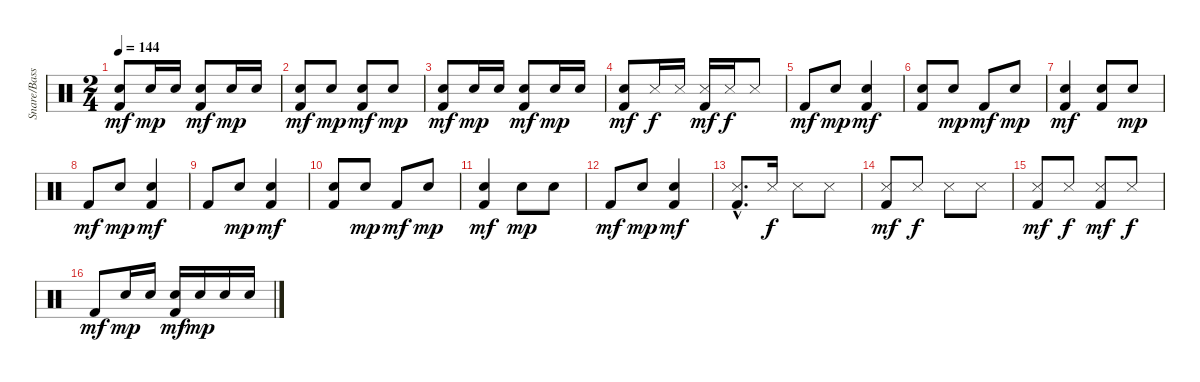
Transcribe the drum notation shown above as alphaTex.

\track ("Snare/Bass Dr       " "Snare/Bass") {instrument percussion}
\staff {score}
\articulation defaults
\ts (2 4)
\tempo 144
\clef neutral
\ks c
("Snare (hit) 2" "Kick (hit) 2").8{dy mf} "Snare (hit) 2".16{dy mp} "Snare (hit) 2".16 ("Snare (hit) 2" "Kick (hit) 2").8{dy mf} "Snare (hit) 2".16{dy mp} "Snare (hit) 2".16 |
("Snare (hit) 2" "Kick (hit) 2").8{dy mf} "Snare (hit) 2".8{dy mp} ("Snare (hit) 2" "Kick (hit) 2").8{dy mf} "Snare (hit) 2".8{dy mp} |
("Snare (hit) 2" "Kick (hit) 2").8{dy mf} "Snare (hit) 2".16{dy mp} "Snare (hit) 2".16 ("Snare (hit) 2" "Kick (hit) 2").8{dy mf} "Snare (hit) 2".16{dy mp} "Snare (hit) 2".16 |
("Snare (hit) 2" "Kick (hit) 2").8{dy mf} "Snare (side stick) 3".16{dy f} "Snare (side stick) 3".16 ("Snare (side stick) 3" "Kick (hit) 2").16{dy mf} "Snare (side stick) 3".16{dy f} "Snare (side stick) 3".8 |
"Kick (hit) 2".8{dy mf} "Snare (hit) 2".8{dy mp} ("Snare (hit) 2" "Kick (hit) 2").4{dy mf} |
("Snare (hit) 2" "Kick (hit) 2").8 "Snare (hit) 2".8{dy mp} "Kick (hit) 2".8{dy mf} "Snare (hit) 2".8{dy mp} |
("Snare (hit) 2" "Kick (hit) 2").4{dy mf} ("Snare (hit) 2" "Kick (hit) 2").8 "Snare (hit) 2".8{dy mp} |
"Kick (hit) 2".8{dy mf} "Snare (hit) 2".8{dy mp} ("Snare (hit) 2" "Kick (hit) 2").4{dy mf} |
"Kick (hit) 2".8 "Snare (hit) 2".8{dy mp} ("Snare (hit) 2" "Kick (hit) 2").4{dy mf} |
("Snare (hit) 2" "Kick (hit) 2").8 "Snare (hit) 2".8{dy mp} "Kick (hit) 2".8{dy mf} "Snare (hit) 2".8{dy mp} |
("Snare (hit) 2" "Kick (hit) 2").4{dy mf} "Snare (hit) 2".8{dy mp} "Snare (hit) 2".8 |
"Kick (hit) 2".8{dy mf} "Snare (hit) 2".8{dy mp} ("Snare (hit) 2" "Kick (hit) 2").4{dy mf} |
("Snare (side stick) 3"{hac} "Kick (hit) 2").8{d} "Snare (side stick) 3".16{dy f} "Snare (side stick) 3".8 "Snare (side stick) 3".8 |
("Snare (side stick) 3" "Kick (hit) 2").8{dy mf} "Snare (side stick) 3".8{dy f} "Snare (side stick) 3".8 "Snare (side stick) 3".8 |
("Snare (side stick) 3" "Kick (hit) 2").8{dy mf} "Snare (side stick) 3".8{dy f} ("Snare (side stick) 3" "Kick (hit) 2").8{dy mf} "Snare (side stick) 3".8{dy f} |
"Kick (hit) 2".8{dy mf} "Snare (hit) 2".16{dy mp} "Snare (hit) 2".16 ("Snare (hit) 2" "Kick (hit) 2").16{dy mf} "Snare (hit) 2".16{dy mp} "Snare (hit) 2".16 "Snare (hit) 2".16
